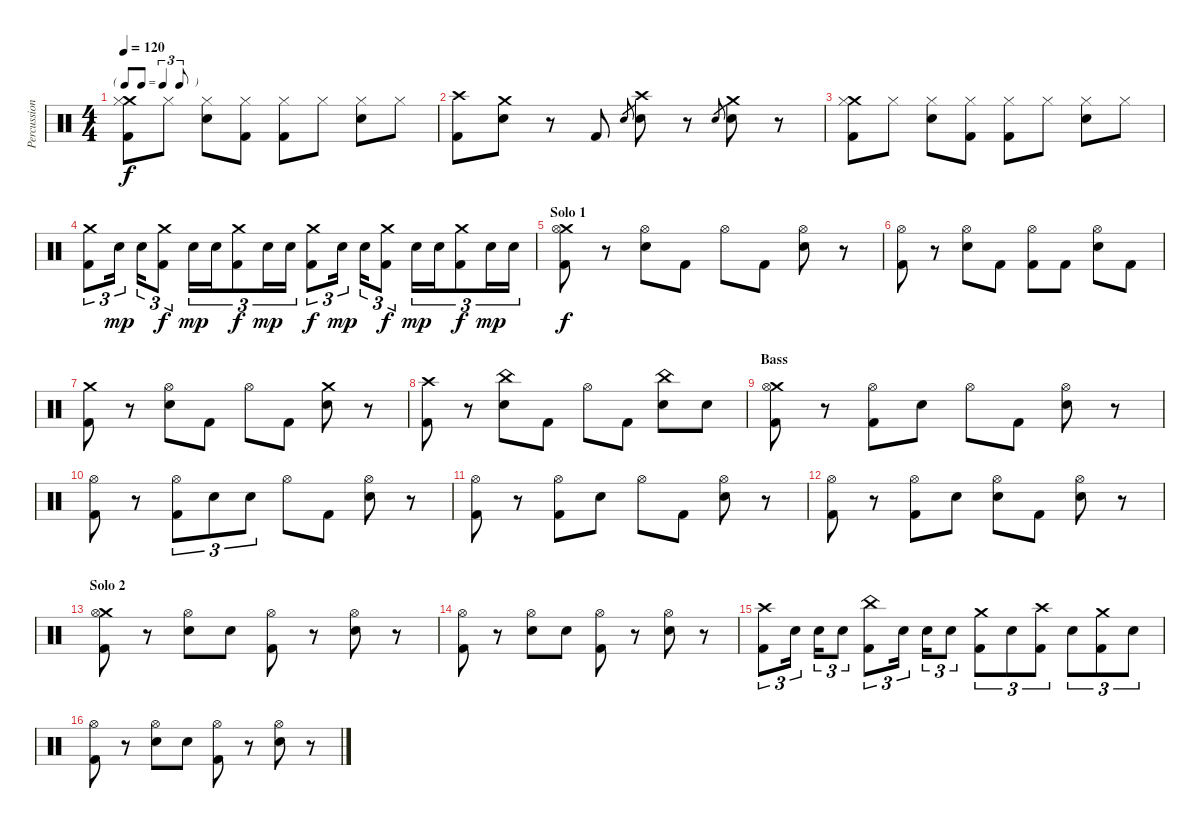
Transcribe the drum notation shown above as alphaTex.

\track ("Percussion" "Percussion") {instrument percussion}
\staff {score}
\articulation defaults
\ts (4 4)
\tf triplet8th
\tempo 120
\clef neutral
\ks c
("Crash medium (hit)" "Hi-Hat (closed)" "Kick (hit) 2").8{dy f} "Hi-Hat (closed)".8 ("Hi-Hat (closed)" "Electric Snare (hit)").8 ("Hi-Hat (closed)" "Kick (hit) 2").8 ("Hi-Hat (closed)" "Kick (hit) 2").8 "Hi-Hat (closed)".8 ("Hi-Hat (closed)" "Electric Snare (hit)").8 "Hi-Hat (closed)".8 |
("Crash high (hit)" "Kick (hit) 2").8 ("Crash medium (hit)" "Electric Snare (hit)").8 r.8 "Kick (hit) 2".8 "Electric Snare (hit)".8{gr} ("Crash high (hit)" "Electric Snare (hit)").8 r.8 "Electric Snare (hit)".8{gr} ("Crash medium (hit)" "Electric Snare (hit)").8 r.8 |
("Crash medium (hit)" "Hi-Hat (closed)" "Kick (hit) 2").8 "Hi-Hat (closed)".8 ("Hi-Hat (closed)" "Electric Snare (hit)").8 ("Hi-Hat (closed)" "Kick (hit) 2").8 ("Hi-Hat (closed)" "Kick (hit) 2").8 "Hi-Hat (closed)".8 ("Hi-Hat (closed)" "Electric Snare (hit)").8 "Hi-Hat (closed)".8 |
("Crash medium (hit)" "Kick (hit) 2").8{tu (3 2)} "Electric Snare (hit)".16{tu (3 2) dy mp} "Electric Snare (hit)".16{tu (3 2)} ("Crash medium (hit)" "Kick (hit) 2").8{tu (3 2) dy f} "Electric Snare (hit)".16{tu (3 2) dy mp} "Electric Snare (hit)".16{tu (3 2)} ("Crash medium (hit)" "Kick (hit) 2").8{tu (3 2) dy f} "Electric Snare (hit)".16{tu (3 2) dy mp} "Electric Snare (hit)".16{tu (3 2)} ("Crash medium (hit)" "Kick (hit) 2").8{tu (3 2) dy f} "Electric Snare (hit)".16{tu (3 2) dy mp} "Electric Snare (hit)".16{tu (3 2)} ("Crash medium (hit)" "Kick (hit) 2").8{tu (3 2) dy f} "Electric Snare (hit)".16{tu (3 2) dy mp} "Electric Snare (hit)".16{tu (3 2)} ("Crash medium (hit)" "Kick (hit) 2").8{tu (3 2) dy f} "Electric Snare (hit)".16{tu (3 2) dy mp} "Electric Snare (hit)".16{tu (3 2)} |
\section ("" "Solo 1")
("Crash medium (hit)" "Hi-Hat (open)" "Kick (hit) 2").8{dy f} r.8 ("Hi-Hat (open)" "Electric Snare (hit)").8 "Kick (hit) 2".8 "Hi-Hat (open)".8 "Kick (hit) 2".8 ("Hi-Hat (open)" "Electric Snare (hit)").8 r.8 |
("Hi-Hat (open)" "Kick (hit) 2").8 r.8 ("Hi-Hat (open)" "Electric Snare (hit)").8 "Kick (hit) 2".8 ("Hi-Hat (open)" "Kick (hit) 2").8 "Kick (hit) 2".8 ("Hi-Hat (open)" "Electric Snare (hit)").8 "Kick (hit) 2".8 |
("Crash medium (hit)" "Kick (hit) 2").8 r.8 ("Hi-Hat (open)" "Electric Snare (hit)").8 "Kick (hit) 2".8 "Hi-Hat (open)".8 "Kick (hit) 2".8 ("Crash medium (hit)" "Electric Snare (hit)").8 r.8 |
("Crash high (hit)" "Kick (hit) 2").8 r.8 ("China (hit)" "Electric Snare (hit)").8 "Kick (hit) 2".8 "Hi-Hat (open)".8 "Kick (hit) 2".8 ("China (hit)" "Electric Snare (hit)").8 "Electric Snare (hit)".8 |
\section ("" "Bass")
("Crash medium (hit)" "Hi-Hat (open)" "Kick (hit) 2").8 r.8 ("Hi-Hat (open)" "Kick (hit) 2").8 "Electric Snare (hit)".8 "Hi-Hat (open)".8 "Kick (hit) 2".8 ("Hi-Hat (open)" "Electric Snare (hit)").8 r.8 |
("Hi-Hat (open)" "Kick (hit) 2").8 r.8 ("Hi-Hat (open)" "Kick (hit) 2").8{tu (3 2)} "Electric Snare (hit)".8{tu (3 2)} "Electric Snare (hit)".8{tu (3 2)} "Hi-Hat (open)".8 "Kick (hit) 2".8 ("Hi-Hat (open)" "Electric Snare (hit)").8 r.8 |
("Hi-Hat (open)" "Kick (hit) 2").8 r.8 ("Hi-Hat (open)" "Kick (hit) 2").8 "Electric Snare (hit)".8 "Hi-Hat (open)".8 "Kick (hit) 2".8 ("Hi-Hat (open)" "Electric Snare (hit)").8 r.8 |
("Hi-Hat (open)" "Kick (hit) 2").8 r.8 ("Hi-Hat (open)" "Kick (hit) 2").8 "Electric Snare (hit)".8 ("Hi-Hat (open)" "Electric Snare (hit)").8 "Kick (hit) 2".8 ("Hi-Hat (open)" "Electric Snare (hit)").8 r.8 |
\section ("" "Solo 2")
("Crash medium (hit)" "Hi-Hat (open)" "Kick (hit) 2").8 r.8 ("Hi-Hat (open)" "Electric Snare (hit)").8 "Electric Snare (hit)".8 ("Hi-Hat (open)" "Kick (hit) 2").8 r.8 ("Hi-Hat (open)" "Electric Snare (hit)").8 r.8 |
("Hi-Hat (open)" "Kick (hit) 2").8 r.8 ("Hi-Hat (open)" "Electric Snare (hit)").8 "Electric Snare (hit)".8 ("Hi-Hat (open)" "Kick (hit) 2").8 r.8 ("Hi-Hat (open)" "Electric Snare (hit)").8 r.8 |
("Crash high (hit)" "Kick (hit) 2").8{tu (3 2)} "Electric Snare (hit)".16{tu (3 2)} "Electric Snare (hit)".16{tu (3 2)} "Electric Snare (hit)".8{tu (3 2)} ("China (hit)" "Kick (hit) 2").8{tu (3 2)} "Electric Snare (hit)".16{tu (3 2)} "Electric Snare (hit)".16{tu (3 2)} "Electric Snare (hit)".8{tu (3 2)} ("Crash medium (hit)" "Kick (hit) 2").8{tu (3 2)} "Electric Snare (hit)".8{tu (3 2)} ("Crash high (hit)" "Kick (hit) 2").8{tu (3 2)} "Electric Snare (hit)".8{tu (3 2)} ("Crash medium (hit)" "Kick (hit) 2").8{tu (3 2)} "Electric Snare (hit)".8{tu (3 2)} |
("Hi-Hat (open)" "Kick (hit) 2").8 r.8 ("Hi-Hat (open)" "Electric Snare (hit)").8 "Electric Snare (hit)".8 ("Hi-Hat (open)" "Kick (hit) 2").8 r.8 ("Hi-Hat (open)" "Electric Snare (hit)").8 r.8
